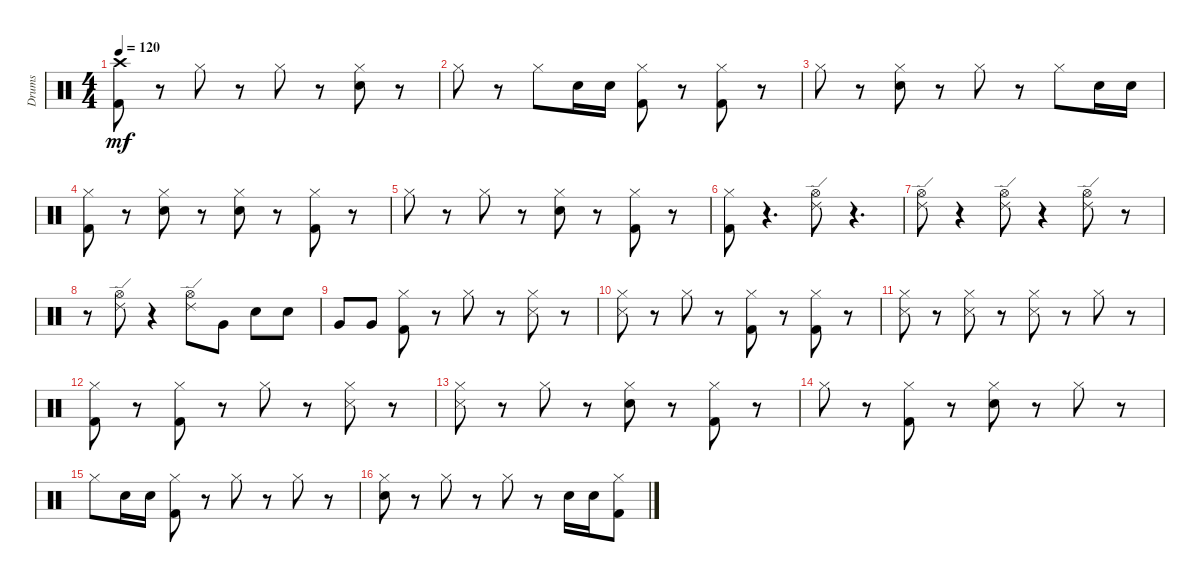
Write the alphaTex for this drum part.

\track ("Drums" "Drums") {instrument percussion}
\staff {score}
\articulation defaults
\ts (4 4)
\tempo 120
\clef neutral
\ks c
("Kick (hit) 2" "Crash high (hit)").8{dy mf} r.8 "Hi-Hat (closed)".8 r.8 "Hi-Hat (closed)".8 r.8 ("Electric Snare (hit)" "Hi-Hat (closed)").8 r.8 |
"Hi-Hat (closed)".8 r.8 "Hi-Hat (closed)".8 "Electric Snare (hit)".16 "Electric Snare (hit)".16 ("Kick (hit) 2" "Hi-Hat (closed)").8 r.8 ("Kick (hit) 2" "Hi-Hat (closed)").8 r.8 |
"Hi-Hat (closed)".8 r.8 ("Electric Snare (hit)" "Hi-Hat (closed)").8 r.8 "Hi-Hat (closed)".8 r.8 "Hi-Hat (closed)".8 "Electric Snare (hit)".16 "Electric Snare (hit)".16 |
("Kick (hit) 2" "Hi-Hat (closed)").8 r.8 ("Electric Snare (hit)" "Hi-Hat (closed)").8 r.8 ("Electric Snare (hit)" "Hi-Hat (closed)").8 r.8 ("Kick (hit) 2" "Hi-Hat (closed)").8 r.8 |
"Hi-Hat (closed)".8 r.8 "Hi-Hat (closed)".8 r.8 ("Electric Snare (hit)" "Hi-Hat (closed)").8 r.8 ("Kick (hit) 2" "Hi-Hat (closed)").8 r.8 |
("Kick (hit) 2" "Hi-Hat (closed)").8 r.4{d} ("Hi-Hat (open)" "Ride (edge) 2").8 r.4{d} |
("Hi-Hat (open)" "Ride (edge) 2").8 r.4 ("Hi-Hat (open)" "Ride (edge) 2").8 r.4 ("Hi-Hat (open)" "Ride (edge) 2").8 r.8 |
r.8 ("Hi-Hat (open)" "Ride (edge) 2").8 r.4 ("Hi-Hat (open)" "Ride (edge) 2").8 "Very Low Tom (hit)".8 "Electric Snare (hit)".8 "Electric Snare (hit)".8 |
"Very Low Tom (hit)".8 "Very Low Tom (hit)".8 ("Kick (hit) 2" "Hi-Hat (closed)").8 r.8 "Hi-Hat (closed)".8 r.8 ("Snare (side stick) 3" "Hi-Hat (closed)").8 r.8 |
("Snare (side stick) 3" "Hi-Hat (closed)").8 r.8 "Hi-Hat (closed)".8 r.8 ("Kick (hit) 2" "Hi-Hat (closed)").8 r.8 ("Kick (hit) 2" "Hi-Hat (closed)").8 r.8 |
("Snare (side stick) 3" "Hi-Hat (closed)").8 r.8 ("Snare (side stick) 3" "Hi-Hat (closed)").8 r.8 ("Snare (side stick) 3" "Hi-Hat (closed)").8 r.8 "Hi-Hat (closed)".8 r.8 |
("Kick (hit) 2" "Hi-Hat (closed)").8 r.8 ("Kick (hit) 2" "Hi-Hat (closed)").8 r.8 "Hi-Hat (closed)".8 r.8 ("Snare (side stick) 3" "Hi-Hat (closed)").8 r.8 |
("Snare (side stick) 3" "Hi-Hat (closed)").8 r.8 "Hi-Hat (closed)".8 r.8 ("Electric Snare (hit)" "Hi-Hat (closed)").8 r.8 ("Kick (hit) 2" "Hi-Hat (closed)").8 r.8 |
"Hi-Hat (closed)".8 r.8 ("Kick (hit) 2" "Hi-Hat (closed)").8 r.8 ("Electric Snare (hit)" "Hi-Hat (closed)").8 r.8 "Hi-Hat (closed)".8 r.8 |
"Hi-Hat (closed)".8 "Electric Snare (hit)".16 "Electric Snare (hit)".16 ("Kick (hit) 2" "Hi-Hat (closed)").8 r.8 "Hi-Hat (closed)".8 r.8 "Hi-Hat (closed)".8 r.8 |
("Electric Snare (hit)" "Hi-Hat (closed)").8 r.8 "Hi-Hat (closed)".8 r.8 "Hi-Hat (closed)".8 r.8 "Electric Snare (hit)".16 "Electric Snare (hit)".16 ("Kick (hit) 2" "Hi-Hat (closed)").8
